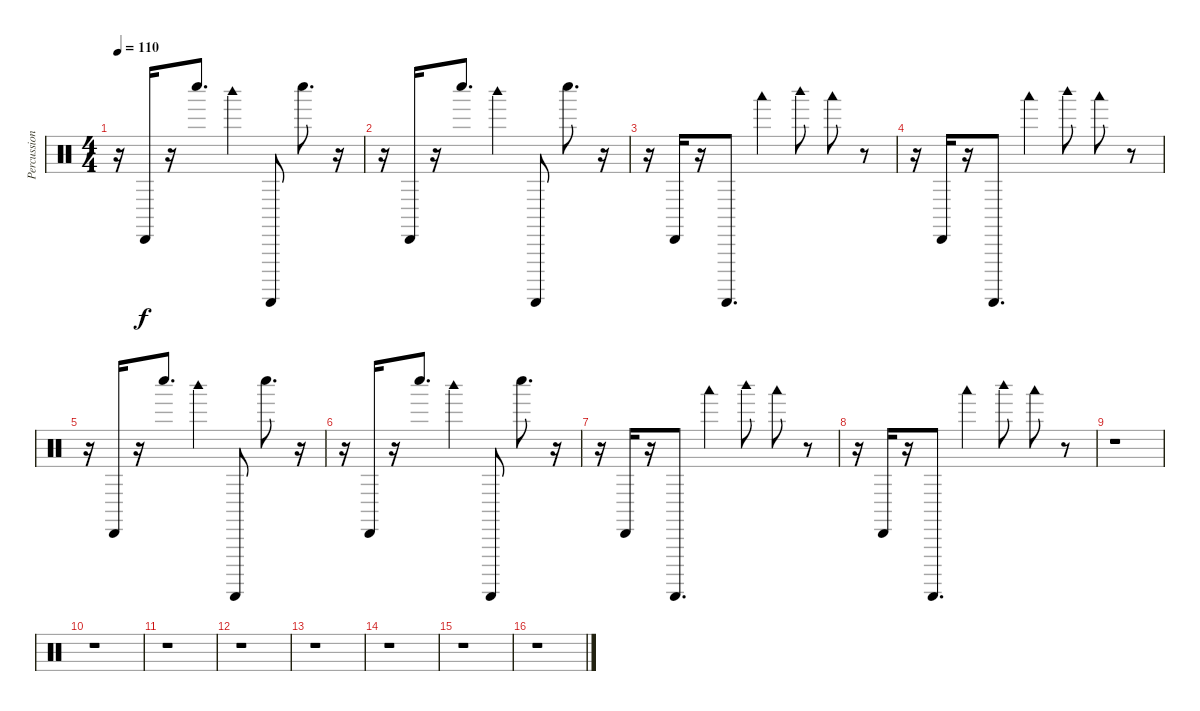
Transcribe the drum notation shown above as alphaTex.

\track ("Percussion" "Percussion") {instrument percussion}
\staff {score}
\articulation defaults
\ts (4 4)
\tempo 110
\clef neutral
\ks c
r.16{dy f} "Cabasa (hit)".16 r.16 "Whistle low (hit)".8{d} "Woodblock high (hit)".4 "Guiro (scrap-return)".8 "Whistle low (hit)".8{d} r.16 |
r.16 "Cabasa (hit)".16 r.16 "Whistle low (hit)".8{d} "Woodblock high (hit)".4 "Guiro (scrap-return)".8 "Whistle low (hit)".8{d} r.16 |
r.16 "Cabasa (hit)".16 r.16 "Guiro (scrap-return)".8{d} "Woodblock low (hit)".4 "Woodblock high (hit)".8 "Woodblock low (hit)".8 r.8 |
r.16 "Cabasa (hit)".16 r.16 "Guiro (scrap-return)".8{d} "Woodblock low (hit)".4 "Woodblock high (hit)".8 "Woodblock low (hit)".8 r.8 |
r.16 "Cabasa (hit)".16 r.16 "Whistle low (hit)".8{d} "Woodblock high (hit)".4 "Guiro (scrap-return)".8 "Whistle low (hit)".8{d} r.16 |
r.16 "Cabasa (hit)".16 r.16 "Whistle low (hit)".8{d} "Woodblock high (hit)".4 "Guiro (scrap-return)".8 "Whistle low (hit)".8{d} r.16 |
r.16 "Cabasa (hit)".16 r.16 "Guiro (scrap-return)".8{d} "Woodblock low (hit)".4 "Woodblock high (hit)".8 "Woodblock low (hit)".8 r.8 |
r.16 "Cabasa (hit)".16 r.16 "Guiro (scrap-return)".8{d} "Woodblock low (hit)".4 "Woodblock high (hit)".8 "Woodblock low (hit)".8 r.8 |
r.1 |
r.1 |
r.1 |
r.1 |
r.1 |
r.1 |
r.1 |
r.1
